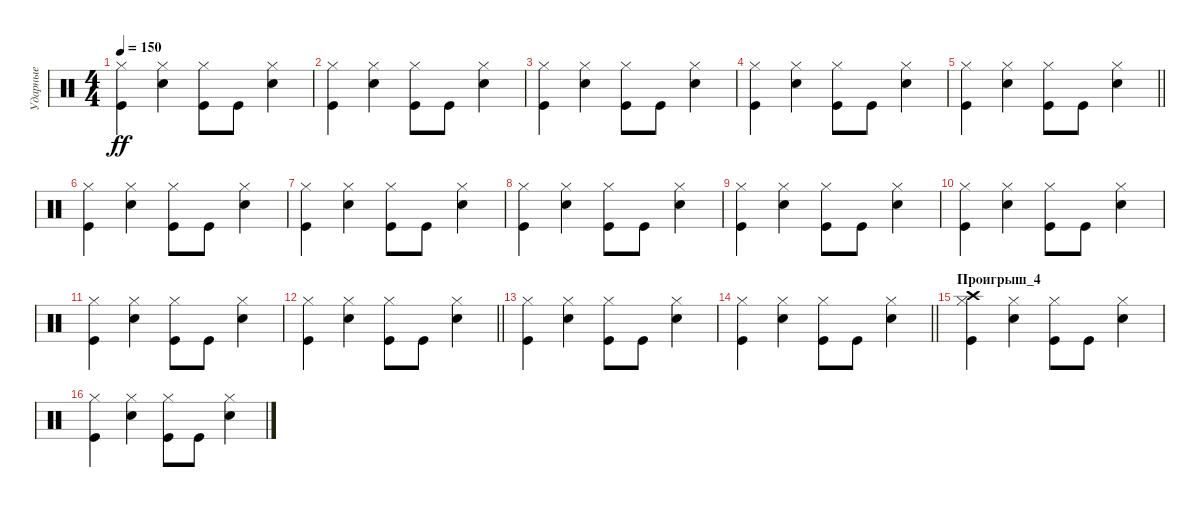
\track ("Ударные" "Ударные") {instrument percussion}
\staff {score}
\articulation defaults
\ts (4 4)
\tempo 150
\clef neutral
\ks c
("Kick (hit)" "Hi-Hat (closed)").4{dy ff} ("Snare (hit) 2" "Hi-Hat (closed)").4 ("Kick (hit)" "Hi-Hat (closed)").8 "Kick (hit)".8 ("Snare (hit) 2" "Hi-Hat (closed)").4 |
("Kick (hit)" "Hi-Hat (closed)").4 ("Snare (hit) 2" "Hi-Hat (closed)").4 ("Kick (hit)" "Hi-Hat (closed)").8 "Kick (hit)".8 ("Snare (hit) 2" "Hi-Hat (closed)").4 |
("Kick (hit)" "Hi-Hat (closed)").4 ("Snare (hit) 2" "Hi-Hat (closed)").4 ("Kick (hit)" "Hi-Hat (closed)").8 "Kick (hit)".8 ("Snare (hit) 2" "Hi-Hat (closed)").4 |
("Kick (hit)" "Hi-Hat (closed)").4 ("Snare (hit) 2" "Hi-Hat (closed)").4 ("Kick (hit)" "Hi-Hat (closed)").8 "Kick (hit)".8 ("Snare (hit) 2" "Hi-Hat (closed)").4 |
\barLineRight lightlight
("Kick (hit)" "Hi-Hat (closed)").4 ("Snare (hit) 2" "Hi-Hat (closed)").4 ("Kick (hit)" "Hi-Hat (closed)").8 "Kick (hit)".8 ("Snare (hit) 2" "Hi-Hat (closed)").4 |
("Kick (hit)" "Hi-Hat (closed)").4 ("Snare (hit) 2" "Hi-Hat (closed)").4 ("Kick (hit)" "Hi-Hat (closed)").8 "Kick (hit)".8 ("Snare (hit) 2" "Hi-Hat (closed)").4 |
("Kick (hit)" "Hi-Hat (closed)").4 ("Snare (hit) 2" "Hi-Hat (closed)").4 ("Kick (hit)" "Hi-Hat (closed)").8 "Kick (hit)".8 ("Snare (hit) 2" "Hi-Hat (closed)").4 |
("Kick (hit)" "Hi-Hat (closed)").4 ("Snare (hit) 2" "Hi-Hat (closed)").4 ("Kick (hit)" "Hi-Hat (closed)").8 "Kick (hit)".8 ("Snare (hit) 2" "Hi-Hat (closed)").4 |
("Kick (hit)" "Hi-Hat (closed)").4 ("Snare (hit) 2" "Hi-Hat (closed)").4 ("Kick (hit)" "Hi-Hat (closed)").8 "Kick (hit)".8 ("Snare (hit) 2" "Hi-Hat (closed)").4 |
("Kick (hit)" "Hi-Hat (closed)").4 ("Snare (hit) 2" "Hi-Hat (closed)").4 ("Kick (hit)" "Hi-Hat (closed)").8 "Kick (hit)".8 ("Snare (hit) 2" "Hi-Hat (closed)").4 |
("Kick (hit)" "Hi-Hat (closed)").4 ("Snare (hit) 2" "Hi-Hat (closed)").4 ("Kick (hit)" "Hi-Hat (closed)").8 "Kick (hit)".8 ("Snare (hit) 2" "Hi-Hat (closed)").4 |
\barLineRight lightlight
("Kick (hit)" "Hi-Hat (closed)").4 ("Snare (hit) 2" "Hi-Hat (closed)").4 ("Kick (hit)" "Hi-Hat (closed)").8 "Kick (hit)".8 ("Snare (hit) 2" "Hi-Hat (closed)").4 |
("Kick (hit)" "Hi-Hat (closed)").4 ("Snare (hit) 2" "Hi-Hat (closed)").4 ("Kick (hit)" "Hi-Hat (closed)").8 "Kick (hit)".8 ("Snare (hit) 2" "Hi-Hat (closed)").4 |
\barLineRight lightlight
("Kick (hit)" "Hi-Hat (closed)").4 ("Snare (hit) 2" "Hi-Hat (closed)").4 ("Kick (hit)" "Hi-Hat (closed)").8 "Kick (hit)".8 ("Snare (hit) 2" "Hi-Hat (closed)").4 |
\section ("" "Проигрыш_4")
("Kick (hit)" "Hi-Hat (closed)" "Crash high (hit)").4 ("Snare (hit) 2" "Hi-Hat (closed)").4 ("Kick (hit)" "Hi-Hat (closed)").8 "Kick (hit)".8 ("Snare (hit) 2" "Hi-Hat (closed)").4 |
("Kick (hit)" "Hi-Hat (closed)").4 ("Snare (hit) 2" "Hi-Hat (closed)").4 ("Kick (hit)" "Hi-Hat (closed)").8 "Kick (hit)".8 ("Snare (hit) 2" "Hi-Hat (closed)").4
